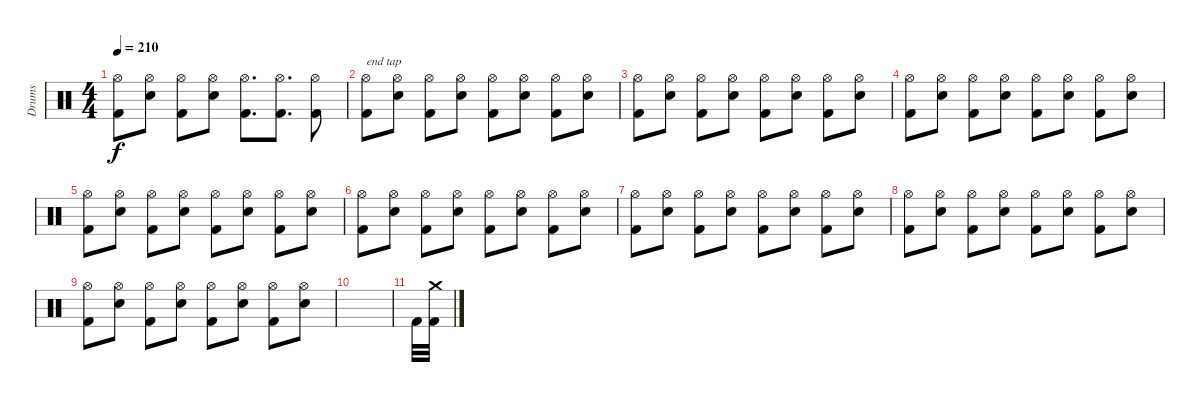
\track ("Drums" "Drums") {instrument percussion}
\staff {score}
\articulation defaults
\ts (4 4)
\tempo 210
\clef neutral
\ks c
("Kick (hit) 2" "Hi-Hat (open)").8{dy f} ("Snare (hit) 2" "Hi-Hat (open)").8 ("Kick (hit) 2" "Hi-Hat (open)").8 ("Snare (hit) 2" "Hi-Hat (open)").8 ("Kick (hit) 2" "Hi-Hat (open)").8{d} ("Kick (hit) 2" "Hi-Hat (open)").8{d} ("Kick (hit) 2" "Hi-Hat (open)").8 |
("Kick (hit) 2" "Hi-Hat (open)").8{txt "end tap"} ("Snare (hit) 2" "Hi-Hat (open)").8 ("Kick (hit) 2" "Hi-Hat (open)").8 ("Snare (hit) 2" "Hi-Hat (open)").8 ("Kick (hit) 2" "Hi-Hat (open)").8 ("Snare (hit) 2" "Hi-Hat (open)").8 ("Kick (hit) 2" "Hi-Hat (open)").8 ("Snare (hit) 2" "Hi-Hat (open)").8 |
("Kick (hit) 2" "Hi-Hat (open)").8 ("Snare (hit) 2" "Hi-Hat (open)").8 ("Kick (hit) 2" "Hi-Hat (open)").8 ("Snare (hit) 2" "Hi-Hat (open)").8 ("Kick (hit) 2" "Hi-Hat (open)").8 ("Snare (hit) 2" "Hi-Hat (open)").8 ("Kick (hit) 2" "Hi-Hat (open)").8 ("Snare (hit) 2" "Hi-Hat (open)").8 |
("Kick (hit) 2" "Hi-Hat (open)").8 ("Snare (hit) 2" "Hi-Hat (open)").8 ("Kick (hit) 2" "Hi-Hat (open)").8 ("Snare (hit) 2" "Hi-Hat (open)").8 ("Kick (hit) 2" "Hi-Hat (open)").8 ("Snare (hit) 2" "Hi-Hat (open)").8 ("Kick (hit) 2" "Hi-Hat (open)").8 ("Snare (hit) 2" "Hi-Hat (open)").8 |
("Kick (hit) 2" "Hi-Hat (open)").8 ("Snare (hit) 2" "Hi-Hat (open)").8 ("Kick (hit) 2" "Hi-Hat (open)").8 ("Snare (hit) 2" "Hi-Hat (open)").8 ("Kick (hit) 2" "Hi-Hat (open)").8 ("Snare (hit) 2" "Hi-Hat (open)").8 ("Kick (hit) 2" "Hi-Hat (open)").8 ("Snare (hit) 2" "Hi-Hat (open)").8 |
("Kick (hit) 2" "Hi-Hat (open)").8 ("Snare (hit) 2" "Hi-Hat (open)").8 ("Kick (hit) 2" "Hi-Hat (open)").8 ("Snare (hit) 2" "Hi-Hat (open)").8 ("Kick (hit) 2" "Hi-Hat (open)").8 ("Snare (hit) 2" "Hi-Hat (open)").8 ("Kick (hit) 2" "Hi-Hat (open)").8 ("Snare (hit) 2" "Hi-Hat (open)").8 |
("Kick (hit) 2" "Hi-Hat (open)").8 ("Snare (hit) 2" "Hi-Hat (open)").8 ("Kick (hit) 2" "Hi-Hat (open)").8 ("Snare (hit) 2" "Hi-Hat (open)").8 ("Kick (hit) 2" "Hi-Hat (open)").8 ("Snare (hit) 2" "Hi-Hat (open)").8 ("Kick (hit) 2" "Hi-Hat (open)").8 ("Snare (hit) 2" "Hi-Hat (open)").8 |
("Kick (hit) 2" "Hi-Hat (open)").8 ("Snare (hit) 2" "Hi-Hat (open)").8 ("Kick (hit) 2" "Hi-Hat (open)").8 ("Snare (hit) 2" "Hi-Hat (open)").8 ("Kick (hit) 2" "Hi-Hat (open)").8 ("Snare (hit) 2" "Hi-Hat (open)").8 ("Kick (hit) 2" "Hi-Hat (open)").8 ("Snare (hit) 2" "Hi-Hat (open)").8 |
("Kick (hit) 2" "Hi-Hat (open)").8 ("Snare (hit) 2" "Hi-Hat (open)").8 ("Kick (hit) 2" "Hi-Hat (open)").8 ("Snare (hit) 2" "Hi-Hat (open)").8 ("Kick (hit) 2" "Hi-Hat (open)").8 ("Snare (hit) 2" "Hi-Hat (open)").8 ("Kick (hit) 2" "Hi-Hat (open)").8 ("Snare (hit) 2" "Hi-Hat (open)").8 |
|
"Kick (hit) 2".32 ("Kick (hit) 2" "Crash medium (hit)").32
